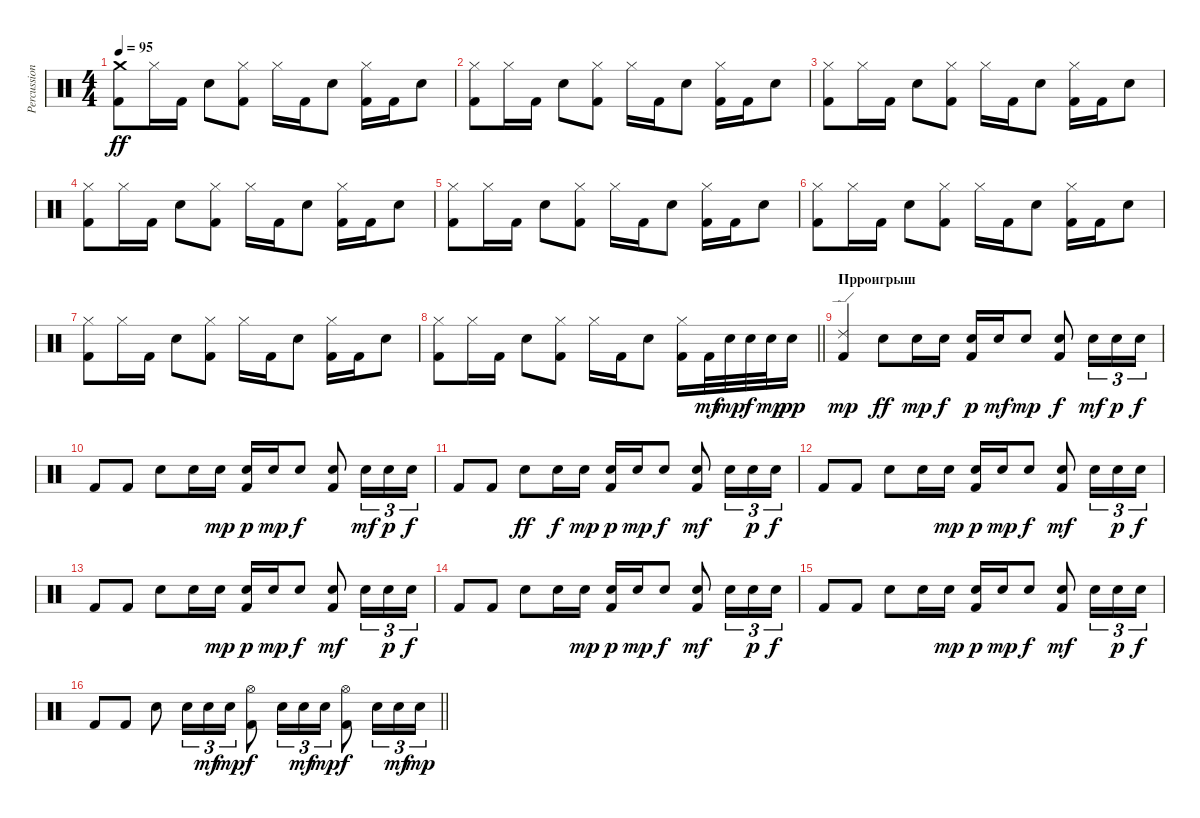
\track ("Percussion" "Percussion") {instrument percussion}
\staff {score}
\articulation defaults
\ts (4 4)
\tempo 95
\clef neutral
\ks c
("Crash medium (hit)" "Kick (hit) 2").8{dy ff} "Hi-Hat (closed)".16 "Kick (hit) 2".16 "Electric Snare (hit)".8 ("Hi-Hat (closed)" "Kick (hit) 2").8 "Hi-Hat (closed)".16 "Kick (hit) 2".16 "Electric Snare (hit)".8 ("Hi-Hat (closed)" "Kick (hit) 2").16 "Kick (hit) 2".16 "Electric Snare (hit)".8 |
("Hi-Hat (closed)" "Kick (hit) 2").8 "Hi-Hat (closed)".16 "Kick (hit) 2".16 "Electric Snare (hit)".8 ("Hi-Hat (closed)" "Kick (hit) 2").8 "Hi-Hat (closed)".16 "Kick (hit) 2".16 "Electric Snare (hit)".8 ("Hi-Hat (closed)" "Kick (hit) 2").16 "Kick (hit) 2".16 "Electric Snare (hit)".8 |
("Hi-Hat (closed)" "Kick (hit) 2").8 "Hi-Hat (closed)".16 "Kick (hit) 2".16 "Electric Snare (hit)".8 ("Hi-Hat (closed)" "Kick (hit) 2").8 "Hi-Hat (closed)".16 "Kick (hit) 2".16 "Electric Snare (hit)".8 ("Hi-Hat (closed)" "Kick (hit) 2").16 "Kick (hit) 2".16 "Electric Snare (hit)".8 |
("Hi-Hat (closed)" "Kick (hit) 2").8 "Hi-Hat (closed)".16 "Kick (hit) 2".16 "Electric Snare (hit)".8 ("Hi-Hat (closed)" "Kick (hit) 2").8 "Hi-Hat (closed)".16 "Kick (hit) 2".16 "Electric Snare (hit)".8 ("Hi-Hat (closed)" "Kick (hit) 2").16 "Kick (hit) 2".16 "Electric Snare (hit)".8 |
("Hi-Hat (closed)" "Kick (hit) 2").8 "Hi-Hat (closed)".16 "Kick (hit) 2".16 "Electric Snare (hit)".8 ("Hi-Hat (closed)" "Kick (hit) 2").8 "Hi-Hat (closed)".16 "Kick (hit) 2".16 "Electric Snare (hit)".8 ("Hi-Hat (closed)" "Kick (hit) 2").16 "Kick (hit) 2".16 "Electric Snare (hit)".8 |
("Hi-Hat (closed)" "Kick (hit) 2").8 "Hi-Hat (closed)".16 "Kick (hit) 2".16 "Electric Snare (hit)".8 ("Hi-Hat (closed)" "Kick (hit) 2").8 "Hi-Hat (closed)".16 "Kick (hit) 2".16 "Electric Snare (hit)".8 ("Hi-Hat (closed)" "Kick (hit) 2").16 "Kick (hit) 2".16 "Electric Snare (hit)".8 |
("Hi-Hat (closed)" "Kick (hit) 2").8 "Hi-Hat (closed)".16 "Kick (hit) 2".16 "Electric Snare (hit)".8 ("Hi-Hat (closed)" "Kick (hit) 2").8 "Hi-Hat (closed)".16 "Kick (hit) 2".16 "Electric Snare (hit)".8 ("Hi-Hat (closed)" "Kick (hit) 2").16 "Kick (hit) 2".16 "Electric Snare (hit)".8 |
\barLineRight lightlight
("Hi-Hat (closed)" "Kick (hit) 2").8 "Hi-Hat (closed)".16 "Kick (hit) 2".16 "Electric Snare (hit)".8 ("Hi-Hat (closed)" "Kick (hit) 2").8 "Hi-Hat (closed)".16 "Kick (hit) 2".16 "Electric Snare (hit)".8 ("Hi-Hat (closed)" "Kick (hit) 2").16 "Kick (hit) 2".32{dy mf} "Electric Snare (hit)".32{dy mp} "Electric Snare (hit)".32{dy f} "Electric Snare (hit)".32{dy mp} "Electric Snare (hit)".16{dy pp} |
\section ("" "Прроигрыш")
("Ride (edge) 2" "Kick (hit) 2").4{dy mp volume 10} "Electric Snare (hit)".8{dy ff} "Electric Snare (hit)".16{dy mp} "Electric Snare (hit)".16{dy f} ("Electric Snare (hit)" "Kick (hit) 2").16{dy p} "Electric Snare (hit)".16{dy mf} "Electric Snare (hit)".8{dy mp} ("Electric Snare (hit)" "Kick (hit) 2").8{dy f} "Electric Snare (hit)".16{tu (3 2) dy mf} "Electric Snare (hit)".16{tu (3 2) dy p} "Electric Snare (hit)".16{tu (3 2) dy f} |
"Kick (hit) 2".8 "Kick (hit) 2".8 "Electric Snare (hit)".8 "Electric Snare (hit)".16 "Electric Snare (hit)".16{dy mp} ("Electric Snare (hit)" "Kick (hit) 2").16{dy p} "Electric Snare (hit)".16{dy mp} "Electric Snare (hit)".8{dy f} ("Electric Snare (hit)" "Kick (hit) 2").8 "Electric Snare (hit)".16{tu (3 2) dy mf} "Electric Snare (hit)".16{tu (3 2) dy p} "Electric Snare (hit)".16{tu (3 2) dy f} |
"Kick (hit) 2".8 "Kick (hit) 2".8 "Electric Snare (hit)".8{dy ff} "Electric Snare (hit)".16{dy f} "Electric Snare (hit)".16{dy mp} ("Electric Snare (hit)" "Kick (hit) 2").16{dy p} "Electric Snare (hit)".16{dy mp} "Electric Snare (hit)".8{dy f} ("Electric Snare (hit)" "Kick (hit) 2").8{dy mf} "Electric Snare (hit)".16{tu (3 2)} "Electric Snare (hit)".16{tu (3 2) dy p} "Electric Snare (hit)".16{tu (3 2) dy f} |
"Kick (hit) 2".8 "Kick (hit) 2".8 "Electric Snare (hit)".8 "Electric Snare (hit)".16 "Electric Snare (hit)".16{dy mp} ("Electric Snare (hit)" "Kick (hit) 2").16{dy p} "Electric Snare (hit)".16{dy mp} "Electric Snare (hit)".8{dy f} ("Electric Snare (hit)" "Kick (hit) 2").8{dy mf} "Electric Snare (hit)".16{tu (3 2)} "Electric Snare (hit)".16{tu (3 2) dy p} "Electric Snare (hit)".16{tu (3 2) dy f} |
"Kick (hit) 2".8 "Kick (hit) 2".8 "Electric Snare (hit)".8 "Electric Snare (hit)".16 "Electric Snare (hit)".16{dy mp} ("Electric Snare (hit)" "Kick (hit) 2").16{dy p} "Electric Snare (hit)".16{dy mp} "Electric Snare (hit)".8{dy f} ("Electric Snare (hit)" "Kick (hit) 2").8{dy mf} "Electric Snare (hit)".16{tu (3 2)} "Electric Snare (hit)".16{tu (3 2) dy p} "Electric Snare (hit)".16{tu (3 2) dy f} |
"Kick (hit) 2".8 "Kick (hit) 2".8 "Electric Snare (hit)".8 "Electric Snare (hit)".16 "Electric Snare (hit)".16{dy mp} ("Electric Snare (hit)" "Kick (hit) 2").16{dy p} "Electric Snare (hit)".16{dy mp} "Electric Snare (hit)".8{dy f} ("Electric Snare (hit)" "Kick (hit) 2").8{dy mf} "Electric Snare (hit)".16{tu (3 2)} "Electric Snare (hit)".16{tu (3 2) dy p} "Electric Snare (hit)".16{tu (3 2) dy f} |
"Kick (hit) 2".8 "Kick (hit) 2".8 "Electric Snare (hit)".8 "Electric Snare (hit)".16 "Electric Snare (hit)".16{dy mp} ("Electric Snare (hit)" "Kick (hit) 2").16{dy p} "Electric Snare (hit)".16{dy mp} "Electric Snare (hit)".8{dy f} ("Electric Snare (hit)" "Kick (hit) 2").8{dy mf} "Electric Snare (hit)".16{tu (3 2)} "Electric Snare (hit)".16{tu (3 2) dy p} "Electric Snare (hit)".16{tu (3 2) dy f} |
\barLineRight lightlight "Kick (hit) 2".8 "Kick (hit) 2".8 "Electric Snare (hit)".8 "Electric Snare (hit)".16{tu (3 2)} "Electric Snare (hit)".16{tu (3 2) dy mf} "Electric Snare (hit)".16{tu (3 2) dy mp}
("Hi-Hat (open)" "Kick (hit) 2").8{dy f} "Electric Snare (hit)".16{tu (3 2)} "Electric Snare (hit)".16{tu (3 2) dy mf} "Electric Snare (hit)".16{tu (3 2) dy mp} ("Hi-Hat (open)" "Kick (hit) 2").8{dy f} "Electric Snare (hit)".16{tu (3 2)} "Electric Snare (hit)".16{tu (3 2) dy mf} "Electric Snare (hit)".16{tu (3 2) dy mp}
